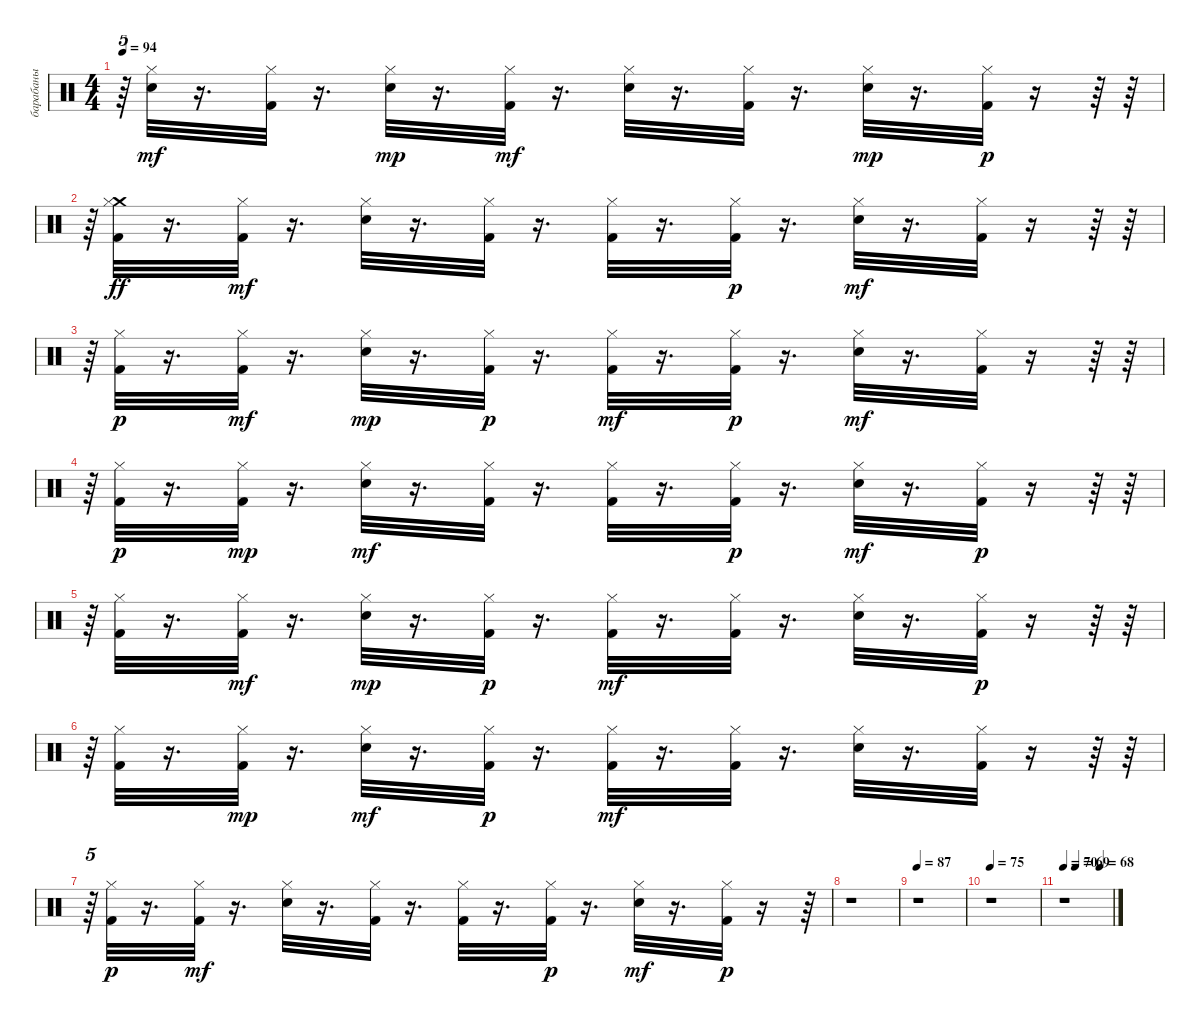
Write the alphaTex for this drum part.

\track ("барабаны" "барабаны") {instrument percussion}
\staff {score}
\articulation defaults
\ts (4 4)
\tempo 94
\clef neutral
\ks c
r.64{tu (5 4) dy f} ("Metronome (bell)" "Hi-Hat (closed)").32{dy mf} r.16{d} ("Kick (hit) 2" "Hi-Hat (closed)").32 r.16{d} ("Metronome (bell)" "Hi-Hat (closed)").32{dy mp} r.16{d} ("Kick (hit) 2" "Hi-Hat (closed)").32{dy mf} r.16{d} ("Metronome (bell)" "Hi-Hat (closed)").32 r.16{d} ("Kick (hit) 2" "Hi-Hat (closed)").32 r.16{d} ("Metronome (bell)" "Hi-Hat (closed)").32{dy mp} r.16{d} ("Hi-Hat (closed)" "Kick (hit) 2").32{dy p} r.16 r.64 r.64 |
r.64{tu (5 4)} ("Crash medium (hit)" "Hi-Hat (closed)" "Kick (hit) 2").32{dy ff} r.16{d} ("Kick (hit) 2" "Hi-Hat (closed)").32{dy mf} r.16{d} ("Hi-Hat (closed)" "Metronome (bell)").32 r.16{d} ("Kick (hit) 2" "Hi-Hat (closed)").32 r.16{d} ("Hi-Hat (closed)" "Kick (hit) 2").32 r.16{d} ("Hi-Hat (closed)" "Kick (hit) 2").32{dy p} r.16{d} ("Metronome (bell)" "Hi-Hat (closed)").32{dy mf} r.16{d} ("Kick (hit) 2" "Hi-Hat (closed)").32 r.16 r.64 r.64 |
r.64{tu (5 4)} ("Hi-Hat (closed)" "Kick (hit) 2").32{dy p} r.16{d} ("Kick (hit) 2" "Hi-Hat (closed)").32{dy mf} r.16{d} ("Metronome (bell)" "Hi-Hat (closed)").32{dy mp} r.16{d} ("Hi-Hat (closed)" "Kick (hit) 2").32{dy p} r.16{d} ("Hi-Hat (closed)" "Kick (hit) 2").32{dy mf} r.16{d} ("Hi-Hat (closed)" "Kick (hit) 2").32{dy p} r.16{d} ("Metronome (bell)" "Hi-Hat (closed)").32{dy mf} r.16{d} ("Kick (hit) 2" "Hi-Hat (closed)").32 r.16 r.64 r.64 |
r.64{tu (5 4)} ("Kick (hit) 2" "Hi-Hat (closed)").32{dy p} r.16{d} ("Hi-Hat (closed)" "Kick (hit) 2").32{dy mp} r.16{d} ("Metronome (bell)" "Hi-Hat (closed)").32{dy mf} r.16{d} ("Kick (hit) 2" "Hi-Hat (closed)").32 r.16{d} ("Hi-Hat (closed)" "Kick (hit) 2").32 r.16{d} ("Hi-Hat (closed)" "Kick (hit) 2").32{dy p} r.16{d} ("Metronome (bell)" "Hi-Hat (closed)").32{dy mf} r.16{d} ("Hi-Hat (closed)" "Kick (hit) 2").32{dy p} r.16 r.64 r.64 |
r.64{tu (5 4)} ("Kick (hit) 2" "Hi-Hat (closed)").32 r.16{d} ("Kick (hit) 2" "Hi-Hat (closed)").32{dy mf} r.16{d} ("Metronome (bell)" "Hi-Hat (closed)").32{dy mp} r.16{d} ("Hi-Hat (closed)" "Kick (hit) 2").32{dy p} r.16{d} ("Hi-Hat (closed)" "Kick (hit) 2").32{dy mf} r.16{d} ("Kick (hit) 2" "Hi-Hat (closed)").32 r.16{d} ("Hi-Hat (closed)" "Metronome (bell)").32 r.16{d} ("Hi-Hat (closed)" "Kick (hit) 2").32{dy p} r.16 r.64 r.64 |
r.64{tu (5 4)} ("Hi-Hat (closed)" "Kick (hit) 2").32 r.16{d} ("Hi-Hat (closed)" "Kick (hit) 2").32{dy mp} r.16{d} ("Hi-Hat (closed)" "Metronome (bell)").32{dy mf} r.16{d} ("Hi-Hat (closed)" "Kick (hit) 2").32{dy p} r.16{d} ("Kick (hit) 2" "Hi-Hat (closed)").32{dy mf} r.16{d} ("Kick (hit) 2" "Hi-Hat (closed)").32 r.16{d} ("Metronome (bell)" "Hi-Hat (closed)").32 r.16{d} ("Kick (hit) 2" "Hi-Hat (closed)").32 r.16 r.64 r.64 |
r.64{tu (5 4)} ("Kick (hit) 2" "Hi-Hat (closed)").32{dy p} r.16{d} ("Kick (hit) 2" "Hi-Hat (closed)").32{dy mf} r.16{d} ("Metronome (bell)" "Hi-Hat (closed)").32 r.16{d} ("Kick (hit) 2" "Hi-Hat (closed)").32 r.16{d} ("Hi-Hat (closed)" "Kick (hit) 2").32 r.16{d} ("Hi-Hat (closed)" "Kick (hit) 2").32{dy p} r.16{d} ("Metronome (bell)" "Hi-Hat (closed)").32{dy mf} r.16{d} ("Hi-Hat (closed)" "Kick (hit) 2").32{dy p} r.16 r.64 |
r.1 |
\tempo 87
r.1 |
\tempo 75
r.1 |
\tempo 70
\tempo (69 0.25)
\tempo (68 0.75)
r.1
